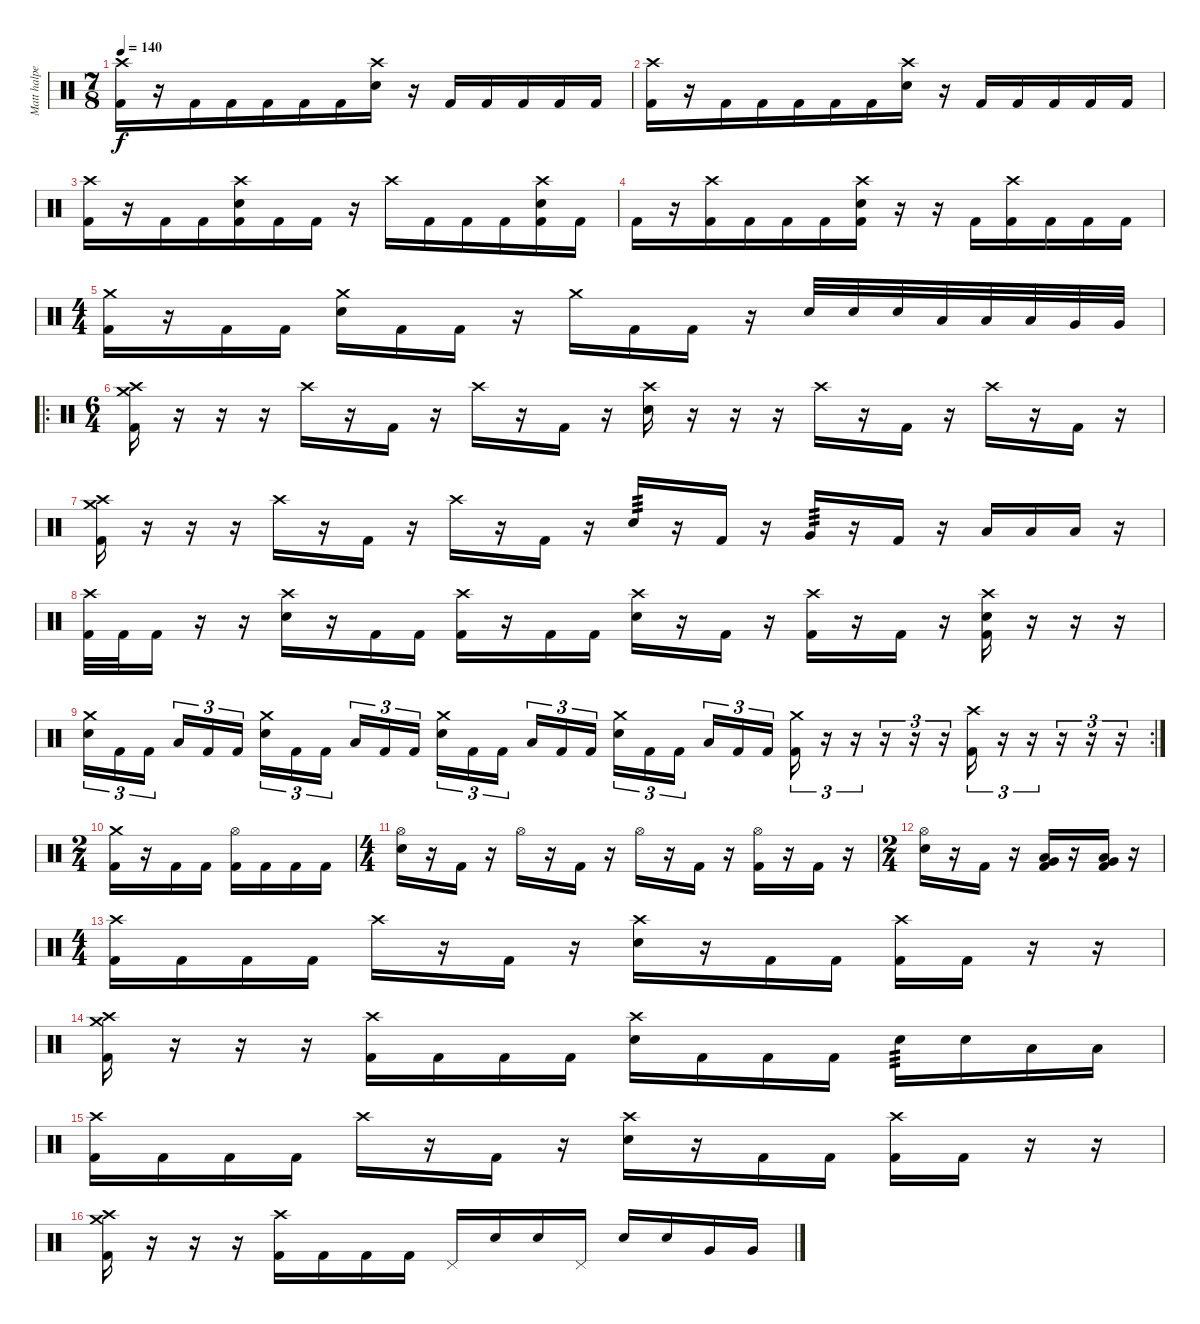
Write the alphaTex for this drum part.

\track ("Matt halpern" "Matt halpe") {instrument percussion}
\staff {score}
\articulation defaults
\ts (7 8)
\tempo 140
\clef neutral
\ks c
("Crash high (hit)" "Kick (hit) 2").16{dy f} r.16 "Kick (hit) 2".16 "Kick (hit) 2".16 "Kick (hit) 2".16 "Kick (hit) 2".16 "Kick (hit) 2".16 ("Crash high (hit)" "Electric Snare (hit)").16 r.16 "Kick (hit) 2".16 "Kick (hit) 2".16 "Kick (hit) 2".16 "Kick (hit) 2".16 "Kick (hit) 2".16 |
("Crash high (hit)" "Kick (hit) 2").16 r.16 "Kick (hit) 2".16 "Kick (hit) 2".16 "Kick (hit) 2".16 "Kick (hit) 2".16 "Kick (hit) 2".16 ("Crash high (hit)" "Electric Snare (hit)").16 r.16 "Kick (hit) 2".16 "Kick (hit) 2".16 "Kick (hit) 2".16 "Kick (hit) 2".16 "Kick (hit) 2".16 |
("Crash high (hit)" "Kick (hit) 2").16 r.16 "Kick (hit) 2".16 "Kick (hit) 2".16 ("Crash high (hit)" "Electric Snare (hit)" "Kick (hit) 2").16 "Kick (hit) 2".16 "Kick (hit) 2".16 r.16 "Crash high (hit)".16 "Kick (hit) 2".16 "Kick (hit) 2".16 "Kick (hit) 2".16 ("Crash high (hit)" "Electric Snare (hit)" "Kick (hit) 2").16 "Kick (hit) 2".16 |
"Kick (hit) 2".16 r.16 ("Crash high (hit)" "Kick (hit) 2").16 "Kick (hit) 2".16 "Kick (hit) 2".16 "Kick (hit) 2".16 ("Crash high (hit)" "Electric Snare (hit)" "Kick (hit) 2").16 r.16 r.16 "Kick (hit) 2".16 ("Crash high (hit)" "Kick (hit) 2").16 "Kick (hit) 2".16 "Kick (hit) 2".16 "Kick (hit) 2".16 |
\ts (4 4)
("Crash medium (hit)" "Kick (hit) 2").16 r.16 "Kick (hit) 2".16 "Kick (hit) 2".16 ("Crash medium (hit)" "Electric Snare (hit)").16 "Kick (hit) 2".16 "Kick (hit) 2".16 r.16 "Crash medium (hit)".16 "Kick (hit) 2".16 "Kick (hit) 2".16 r.16 "Electric Snare (hit)".32 "Electric Snare (hit)".32 "Electric Snare (hit)".32 "Low Tom (hit)".32 "Low Tom (hit)".32 "Low Tom (hit)".32 "Very Low Tom (hit)".32 "Very Low Tom (hit)".32 |
\ro
\ts (6 4)
("Crash medium (hit)" "Crash high (hit)" "Kick (hit) 2").16 r.16 r.16 r.16 "Crash high (hit)".16 r.16 "Kick (hit) 2".16 r.16 "Crash high (hit)".16 r.16 "Kick (hit) 2".16 r.16 ("Crash high (hit)" "Electric Snare (hit)").16 r.16 r.16 r.16 "Crash high (hit)".16 r.16 "Kick (hit) 2".16 r.16 "Crash high (hit)".16 r.16 "Kick (hit) 2".16 r.16 |
("Crash high (hit)" "Crash medium (hit)" "Kick (hit) 2").16 r.16 r.16 r.16 "Crash high (hit)".16 r.16 "Kick (hit) 2".16 r.16 "Crash high (hit)".16 r.16 "Kick (hit) 2".16 r.16 "Snare (hit) 2".16{tp 3} r.16 "Kick (hit) 2".16 r.16 "Very Low Tom (hit)".16{tp 3} r.16 "Kick (hit) 2".16 r.16 "Low Floor Tom (hit)".16 "Low Floor Tom (hit)".16 "Low Floor Tom (hit)".16 r.16 |
("Crash high (hit)" "Kick (hit) 2").32 "Kick (hit) 2".32 "Kick (hit) 2".16 r.16 r.16 ("Crash high (hit)" "Electric Snare (hit)").16 r.16 "Kick (hit) 2".16 "Kick (hit) 2".16 ("Crash high (hit)" "Kick (hit) 2").16 r.16 "Kick (hit) 2".16 "Kick (hit) 2".16 ("Crash high (hit)" "Electric Snare (hit)").16 r.16 "Kick (hit) 2".16 r.16 ("Crash high (hit)" "Kick (hit) 2").16 r.16 "Kick (hit) 2".16 r.16 ("Crash high (hit)" "Electric Snare (hit)" "Kick (hit) 2").16 r.16 r.16 r.16 |
\rc 2
("Crash medium (hit)" "Electric Snare (hit)").16{tu (3 2)} "Kick (hit) 2".16{tu (3 2)} "Kick (hit) 2".16{tu (3 2)} "Low Floor Tom (hit)".16{tu (3 2)} "Kick (hit) 2".16{tu (3 2)} "Kick (hit) 2".16{tu (3 2)} ("Crash medium (hit)" "Electric Snare (hit)").16{tu (3 2)} "Kick (hit) 2".16{tu (3 2)} "Kick (hit) 2".16{tu (3 2)} "Low Floor Tom (hit)".16{tu (3 2)} "Kick (hit) 2".16{tu (3 2)} "Kick (hit) 2".16{tu (3 2)} ("Crash medium (hit)" "Electric Snare (hit)").16{tu (3 2)} "Kick (hit) 2".16{tu (3 2)} "Kick (hit) 2".16{tu (3 2)} "Low Floor Tom (hit)".16{tu (3 2)} "Kick (hit) 2".16{tu (3 2)} "Kick (hit) 2".16{tu (3 2)} ("Crash medium (hit)" "Electric Snare (hit)").16{tu (3 2)} "Kick (hit) 2".16{tu (3 2)} "Kick (hit) 2".16{tu (3 2)} "Low Floor Tom (hit)".16{tu (3 2)} "Kick (hit) 2".16{tu (3 2)} "Kick (hit) 2".16{tu (3 2)} ("Crash medium (hit)" "Kick (hit) 2").16{tu (3 2)} r.16{tu (3 2)} r.16{tu (3 2)} r.16{tu (3 2)} r.16{tu (3 2)} r.16{tu (3 2)} ("Crash high (hit)" "Kick (hit) 2").16{tu (3 2)} r.16{tu (3 2)} r.16{tu (3 2)} r.16{tu (3 2)} r.16{tu (3 2)} r.16{tu (3 2)} |
\ts (2 4)
("Crash medium (hit)" "Kick (hit) 2").16 r.16 "Kick (hit) 2".16 "Kick (hit) 2".16 ("Hi-Hat (open)" "Kick (hit) 2").16 "Kick (hit) 2".16 "Kick (hit) 2".16 "Kick (hit) 2".16 |
\ts (4 4)
("Hi-Hat (open)" "Electric Snare (hit)").16 r.16 "Kick (hit) 2".16 r.16 "Hi-Hat (open)".16 r.16 "Kick (hit) 2".16 r.16 "Hi-Hat (open)".16 r.16 "Kick (hit) 2".16 r.16 ("Hi-Hat (open)" "Kick (hit) 2").16 r.16 "Kick (hit) 2".16 r.16 |
\ts (2 4)
("Hi-Hat (open)" "Electric Snare (hit)").16 r.16 "Kick (hit) 2".16 r.16 ("Very Low Tom (hit)" "Low Floor Tom (hit)" "Kick (hit) 2").16 r.16 ("Very Low Tom (hit)" "Low Floor Tom (hit)" "Kick (hit) 2").16 r.16 |
\ts (4 4)
("Crash high (hit)" "Kick (hit) 2").16 "Kick (hit) 2".16 "Kick (hit) 2".16 "Kick (hit) 2".16 "Crash high (hit)".16 r.16 "Kick (hit) 2".16 r.16 ("Crash high (hit)" "Electric Snare (hit)").16 r.16 "Kick (hit) 2".16 "Kick (hit) 2".16 ("Crash high (hit)" "Kick (hit) 2").16 "Kick (hit) 2".16 r.16 r.16 |
("Crash medium (hit)" "Crash high (hit)" "Kick (hit) 2").16 r.16 r.16 r.16 ("Crash high (hit)" "Kick (hit) 2").16 "Kick (hit) 2".16 "Kick (hit) 2".16 "Kick (hit) 2".16 ("Crash high (hit)" "Electric Snare (hit)").16 "Kick (hit) 2".16 "Kick (hit) 2".16 "Kick (hit) 2".16 "Electric Snare (hit)".16{tp 3} "Electric Snare (hit)".16 "Low Tom (hit)".16 "Low Tom (hit)".16 |
("Crash high (hit)" "Kick (hit) 2").16 "Kick (hit) 2".16 "Kick (hit) 2".16 "Kick (hit) 2".16 "Crash high (hit)".16 r.16 "Kick (hit) 2".16 r.16 ("Crash high (hit)" "Electric Snare (hit)").16 r.16 "Kick (hit) 2".16 "Kick (hit) 2".16 ("Crash high (hit)" "Kick (hit) 2").16 "Kick (hit) 2".16 r.16 r.16 |
("Crash medium (hit)" "Crash high (hit)" "Kick (hit) 2").16 r.16 r.16 r.16 ("Crash high (hit)" "Kick (hit) 2").16 "Kick (hit) 2".16 "Kick (hit) 2".16 "Kick (hit) 2".16 "Pedal Hi-Hat (hit)".16 "Electric Snare (hit)".16 "Electric Snare (hit)".16 "Pedal Hi-Hat (hit)".16 "Electric Snare (hit)".16 "Electric Snare (hit)".16 "Very Low Tom (hit)".16 "Very Low Tom (hit)".16
